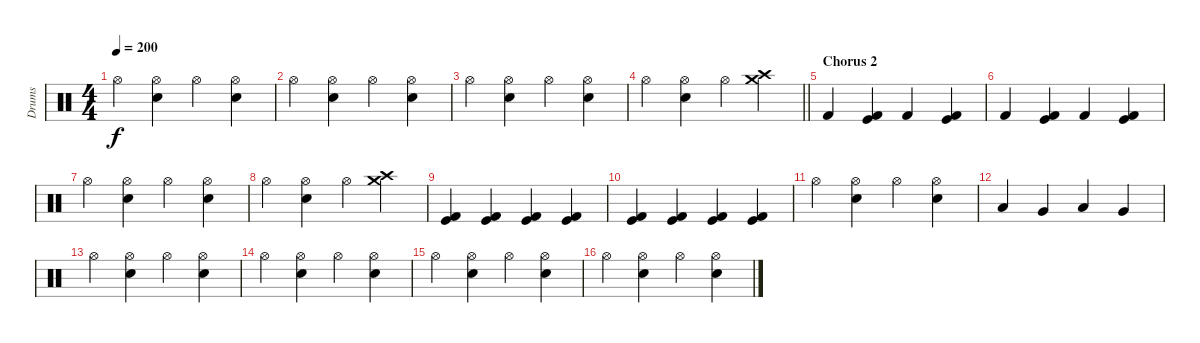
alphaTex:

\track ("Drums" "Drums") {instrument percussion}
\staff {score}
\articulation defaults
\ts (4 4)
\tempo 200
\clef neutral
\ks c "Hi-Hat (open)".4{dy f}
("Hi-Hat (open)" "Snare (hit) 2").4 "Hi-Hat (open)".4 ("Hi-Hat (open)" "Snare (hit) 2").4 |
"Hi-Hat (open)".4 ("Hi-Hat (open)" "Snare (hit) 2").4 "Hi-Hat (open)".4 ("Hi-Hat (open)" "Snare (hit) 2").4 |
"Hi-Hat (open)".4 ("Hi-Hat (open)" "Snare (hit) 2").4 "Hi-Hat (open)".4 ("Hi-Hat (open)" "Snare (hit) 2").4 |
\barLineRight lightlight "Hi-Hat (open)".4
("Hi-Hat (open)" "Snare (hit) 2").4 "Hi-Hat (open)".4 ("Crash high (hit)" "Crash medium (hit)").4 |
\section ("" "Chorus 2")
"Kick (hit) 2".4 ("Kick (hit)" "Kick (hit) 2").4 "Kick (hit) 2".4 ("Kick (hit)" "Kick (hit) 2").4 |
"Kick (hit) 2".4 ("Kick (hit)" "Kick (hit) 2").4 "Kick (hit) 2".4 ("Kick (hit)" "Kick (hit) 2").4 |
"Hi-Hat (open)".4 ("Hi-Hat (open)" "Snare (hit) 2").4 "Hi-Hat (open)".4 ("Hi-Hat (open)" "Snare (hit) 2").4 |
"Hi-Hat (open)".4 ("Hi-Hat (open)" "Snare (hit) 2").4 "Hi-Hat (open)".4 ("Crash high (hit)" "Crash medium (hit)").4 |
("Kick (hit)" "Kick (hit) 2").4 ("Kick (hit)" "Kick (hit) 2").4 ("Kick (hit)" "Kick (hit) 2").4 ("Kick (hit)" "Kick (hit) 2").4 |
("Kick (hit)" "Kick (hit) 2").4 ("Kick (hit)" "Kick (hit) 2").4 ("Kick (hit)" "Kick (hit) 2").4 ("Kick (hit)" "Kick (hit) 2").4 |
"Hi-Hat (open)".4 ("Hi-Hat (open)" "Snare (hit) 2").4 "Hi-Hat (open)".4 ("Hi-Hat (open)" "Snare (hit) 2").4 |
"Low Floor Tom (hit)".4 "Very Low Tom (hit)".4 "Low Floor Tom (hit)".4 "Very Low Tom (hit)".4 |
"Hi-Hat (open)".4 ("Hi-Hat (open)" "Snare (hit) 2").4 "Hi-Hat (open)".4 ("Hi-Hat (open)" "Snare (hit) 2").4 |
"Hi-Hat (open)".4 ("Hi-Hat (open)" "Snare (hit) 2").4 "Hi-Hat (open)".4 ("Hi-Hat (open)" "Snare (hit) 2").4 |
"Hi-Hat (open)".4 ("Hi-Hat (open)" "Snare (hit) 2").4 "Hi-Hat (open)".4 ("Hi-Hat (open)" "Snare (hit) 2").4 |
"Hi-Hat (open)".4 ("Hi-Hat (open)" "Snare (hit) 2").4 "Hi-Hat (open)".4 ("Hi-Hat (open)" "Snare (hit) 2").4
